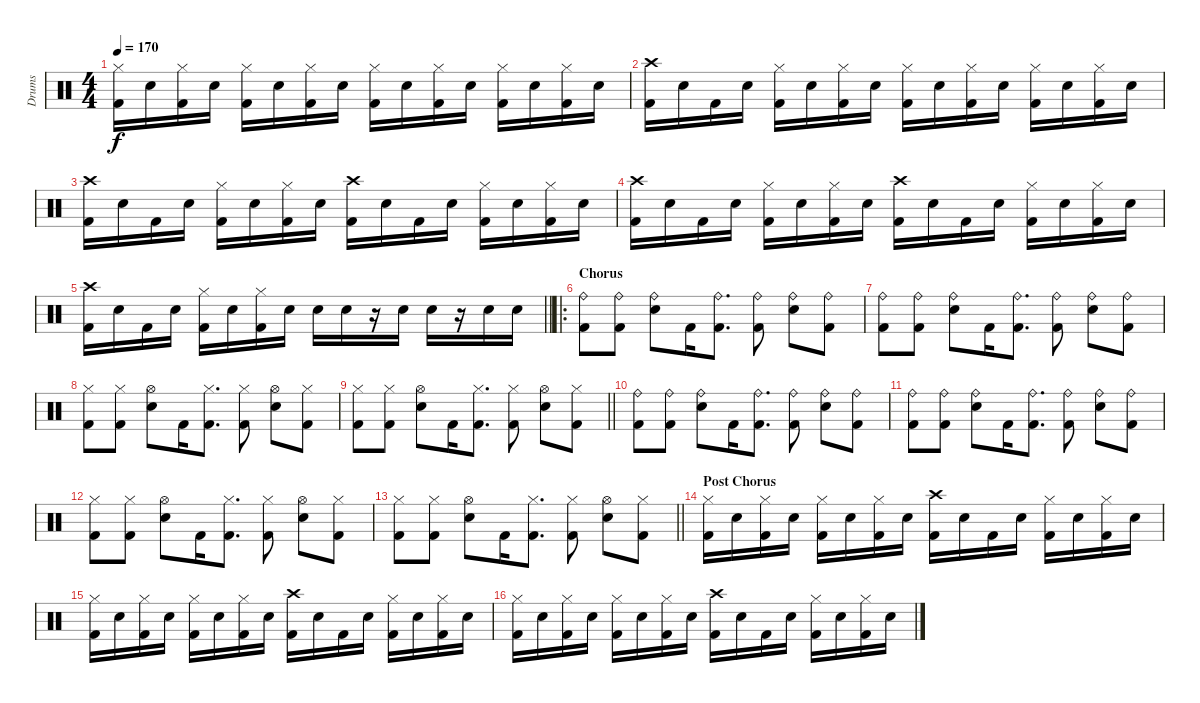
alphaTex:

\track ("Drums" "Drums") {instrument percussion}
\staff {score}
\articulation defaults
\ts (4 4)
\tempo 170
\clef neutral
\ks c
("Hi-Hat (closed)" "Kick (hit) 2").16{dy f} "Electric Snare (hit)".16 ("Hi-Hat (closed)" "Kick (hit) 2").16 "Electric Snare (hit)".16 ("Hi-Hat (closed)" "Kick (hit) 2").16 "Electric Snare (hit)".16 ("Hi-Hat (closed)" "Kick (hit) 2").16 "Electric Snare (hit)".16 ("Hi-Hat (closed)" "Kick (hit) 2").16 "Electric Snare (hit)".16 ("Hi-Hat (closed)" "Kick (hit) 2").16 "Electric Snare (hit)".16 ("Hi-Hat (closed)" "Kick (hit) 2").16 "Electric Snare (hit)".16 ("Hi-Hat (closed)" "Kick (hit) 2").16 "Electric Snare (hit)".16 |
("Crash high (hit)" "Kick (hit) 2").16 "Electric Snare (hit)".16 "Kick (hit) 2".16 "Electric Snare (hit)".16 ("Hi-Hat (closed)" "Kick (hit) 2").16 "Electric Snare (hit)".16 ("Hi-Hat (closed)" "Kick (hit) 2").16 "Electric Snare (hit)".16 ("Hi-Hat (closed)" "Kick (hit) 2").16 "Electric Snare (hit)".16 ("Hi-Hat (closed)" "Kick (hit) 2").16 "Electric Snare (hit)".16 ("Hi-Hat (closed)" "Kick (hit) 2").16 "Electric Snare (hit)".16 ("Hi-Hat (closed)" "Kick (hit) 2").16 "Electric Snare (hit)".16 |
("Crash high (hit)" "Kick (hit) 2").16 "Electric Snare (hit)".16 "Kick (hit) 2".16 "Electric Snare (hit)".16 ("Hi-Hat (closed)" "Kick (hit) 2").16 "Electric Snare (hit)".16 ("Hi-Hat (closed)" "Kick (hit) 2").16 "Electric Snare (hit)".16 ("Crash high (hit)" "Kick (hit) 2").16 "Electric Snare (hit)".16 "Kick (hit) 2".16 "Electric Snare (hit)".16 ("Hi-Hat (closed)" "Kick (hit) 2").16 "Electric Snare (hit)".16 ("Hi-Hat (closed)" "Kick (hit) 2").16 "Electric Snare (hit)".16 |
("Crash high (hit)" "Kick (hit) 2").16 "Electric Snare (hit)".16 "Kick (hit) 2".16 "Electric Snare (hit)".16 ("Hi-Hat (closed)" "Kick (hit) 2").16 "Electric Snare (hit)".16 ("Hi-Hat (closed)" "Kick (hit) 2").16 "Electric Snare (hit)".16 ("Crash high (hit)" "Kick (hit) 2").16 "Electric Snare (hit)".16 "Kick (hit) 2".16 "Electric Snare (hit)".16 ("Hi-Hat (closed)" "Kick (hit) 2").16 "Electric Snare (hit)".16 ("Hi-Hat (closed)" "Kick (hit) 2").16 "Electric Snare (hit)".16 |
\barLineRight lightlight
("Crash high (hit)" "Kick (hit) 2").16 "Electric Snare (hit)".16 "Kick (hit) 2".16 "Electric Snare (hit)".16 ("Hi-Hat (closed)" "Kick (hit) 2").16 "Electric Snare (hit)".16 ("Hi-Hat (closed)" "Kick (hit) 2").16 "Electric Snare (hit)".16 "Electric Snare (hit)".16 "Electric Snare (hit)".16 r.16 "Electric Snare (hit)".16 "Electric Snare (hit)".16 r.16 "Electric Snare (hit)".16 "Electric Snare (hit)".16 |
\ro
\section ("" "Chorus")
("Ride (bell)" "Kick (hit) 2").8 ("Ride (bell)" "Kick (hit) 2").8 ("Ride (bell)" "Electric Snare (hit)").8 "Kick (hit) 2".16 ("Ride (bell)" "Kick (hit) 2").8{d} ("Ride (bell)" "Kick (hit) 2").8 ("Ride (bell)" "Electric Snare (hit)").8 ("Ride (bell)" "Kick (hit) 2").8 |
("Ride (bell)" "Kick (hit) 2").8 ("Ride (bell)" "Kick (hit) 2").8 ("Ride (bell)" "Electric Snare (hit)").8 "Kick (hit) 2".16 ("Ride (bell)" "Kick (hit) 2").8{d} ("Ride (bell)" "Kick (hit) 2").8 ("Ride (bell)" "Electric Snare (hit)").8 ("Ride (bell)" "Kick (hit) 2").8 |
("Hi-Hat (closed)" "Kick (hit) 2").8 ("Hi-Hat (closed)" "Kick (hit) 2").8 ("Hi-Hat (open)" "Electric Snare (hit)").8 "Kick (hit) 2".16 ("Hi-Hat (closed)" "Kick (hit) 2").8{d} ("Hi-Hat (closed)" "Kick (hit) 2").8 ("Hi-Hat (open)" "Electric Snare (hit)").8 ("Hi-Hat (closed)" "Kick (hit) 2").8 |
\barLineRight lightlight
("Hi-Hat (closed)" "Kick (hit) 2").8 ("Hi-Hat (closed)" "Kick (hit) 2").8 ("Hi-Hat (open)" "Electric Snare (hit)").8 "Kick (hit) 2".16 ("Hi-Hat (closed)" "Kick (hit) 2").8{d} ("Hi-Hat (closed)" "Kick (hit) 2").8 ("Hi-Hat (open)" "Electric Snare (hit)").8 ("Hi-Hat (closed)" "Kick (hit) 2").8 |
("Ride (bell)" "Kick (hit) 2").8 ("Ride (bell)" "Kick (hit) 2").8 ("Ride (bell)" "Electric Snare (hit)").8 "Kick (hit) 2".16 ("Ride (bell)" "Kick (hit) 2").8{d} ("Ride (bell)" "Kick (hit) 2").8 ("Ride (bell)" "Electric Snare (hit)").8 ("Ride (bell)" "Kick (hit) 2").8 |
("Ride (bell)" "Kick (hit) 2").8 ("Ride (bell)" "Kick (hit) 2").8 ("Ride (bell)" "Electric Snare (hit)").8 "Kick (hit) 2".16 ("Ride (bell)" "Kick (hit) 2").8{d} ("Ride (bell)" "Kick (hit) 2").8 ("Ride (bell)" "Electric Snare (hit)").8 ("Ride (bell)" "Kick (hit) 2").8 |
("Hi-Hat (closed)" "Kick (hit) 2").8 ("Hi-Hat (closed)" "Kick (hit) 2").8 ("Hi-Hat (open)" "Electric Snare (hit)").8 "Kick (hit) 2".16 ("Hi-Hat (closed)" "Kick (hit) 2").8{d} ("Hi-Hat (closed)" "Kick (hit) 2").8 ("Hi-Hat (open)" "Electric Snare (hit)").8 ("Hi-Hat (closed)" "Kick (hit) 2").8 |
\barLineRight lightlight
("Hi-Hat (closed)" "Kick (hit) 2").8 ("Hi-Hat (closed)" "Kick (hit) 2").8 ("Hi-Hat (open)" "Electric Snare (hit)").8 "Kick (hit) 2".16 ("Hi-Hat (closed)" "Kick (hit) 2").8{d} ("Hi-Hat (closed)" "Kick (hit) 2").8 ("Hi-Hat (open)" "Electric Snare (hit)").8 ("Hi-Hat (closed)" "Kick (hit) 2").8 |
\section ("" "Post Chorus")
("Hi-Hat (closed)" "Kick (hit) 2").16 "Electric Snare (hit)".16 ("Hi-Hat (closed)" "Kick (hit) 2").16 "Electric Snare (hit)".16 ("Hi-Hat (closed)" "Kick (hit) 2").16 "Electric Snare (hit)".16 ("Hi-Hat (closed)" "Kick (hit) 2").16 "Electric Snare (hit)".16 ("Crash high (hit)" "Kick (hit) 2").16 "Electric Snare (hit)".16 "Kick (hit) 2".16 "Electric Snare (hit)".16 ("Hi-Hat (closed)" "Kick (hit) 2").16 "Electric Snare (hit)".16 ("Hi-Hat (closed)" "Kick (hit) 2").16 "Electric Snare (hit)".16 |
("Hi-Hat (closed)" "Kick (hit) 2").16 "Electric Snare (hit)".16 ("Hi-Hat (closed)" "Kick (hit) 2").16 "Electric Snare (hit)".16 ("Hi-Hat (closed)" "Kick (hit) 2").16 "Electric Snare (hit)".16 ("Hi-Hat (closed)" "Kick (hit) 2").16 "Electric Snare (hit)".16 ("Crash high (hit)" "Kick (hit) 2").16 "Electric Snare (hit)".16 "Kick (hit) 2".16 "Electric Snare (hit)".16 ("Hi-Hat (closed)" "Kick (hit) 2").16 "Electric Snare (hit)".16 ("Hi-Hat (closed)" "Kick (hit) 2").16 "Electric Snare (hit)".16 |
("Hi-Hat (closed)" "Kick (hit) 2").16 "Electric Snare (hit)".16 ("Hi-Hat (closed)" "Kick (hit) 2").16 "Electric Snare (hit)".16 ("Hi-Hat (closed)" "Kick (hit) 2").16 "Electric Snare (hit)".16 ("Hi-Hat (closed)" "Kick (hit) 2").16 "Electric Snare (hit)".16 ("Crash high (hit)" "Kick (hit) 2").16 "Electric Snare (hit)".16 "Kick (hit) 2".16 "Electric Snare (hit)".16 ("Hi-Hat (closed)" "Kick (hit) 2").16 "Electric Snare (hit)".16 ("Hi-Hat (closed)" "Kick (hit) 2").16 "Electric Snare (hit)".16
